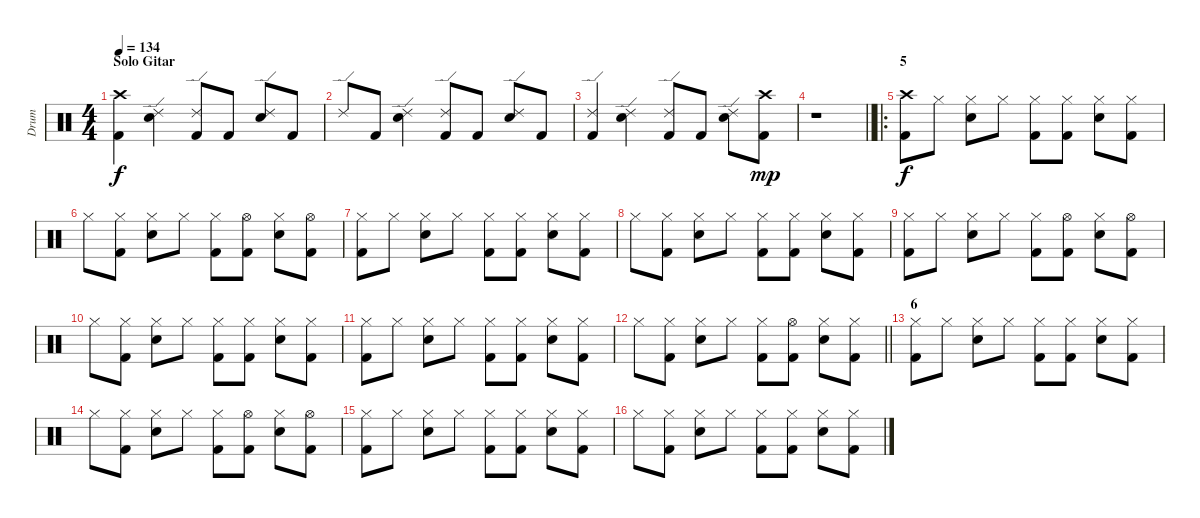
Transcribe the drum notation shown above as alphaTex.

\track ("Drum" "Drum") {instrument percussion}
\staff {score}
\articulation defaults
\ts (4 4)
\section ("" "Solo Gitar")
\tempo 134
\clef neutral
\ks c
("Kick (hit) 2" "Crash high (hit)").4{dy f} ("Electric Snare (hit)" "Ride (edge) 2").4 ("Ride (edge) 2" "Kick (hit) 2").8 "Kick (hit) 2".8 ("Electric Snare (hit)" "Ride (edge) 2").8 "Kick (hit) 2".8 |
"Ride (edge) 2".8 "Kick (hit) 2".8 ("Electric Snare (hit)" "Ride (edge) 2").4 ("Kick (hit) 2" "Ride (edge) 2").8 "Kick (hit) 2".8 ("Ride (edge) 2" "Electric Snare (hit)").8 "Kick (hit) 2".8 |
("Kick (hit) 2" "Ride (edge) 2").4 ("Electric Snare (hit)" "Ride (edge) 2").4 ("Ride (edge) 2" "Kick (hit) 2").8 "Kick (hit) 2".8 ("Electric Snare (hit)" "Ride (edge) 2").8 ("Crash high (hit)" "Kick (hit) 2").8{dy mp} |
\barLineRight lightlight
r.1 |
\ro
\section ("" "5")
("Kick (hit) 2" "Crash high (hit)").8{dy f} "Hi-Hat (closed)".8 ("Hi-Hat (closed)" "Electric Snare (hit)").8 "Hi-Hat (closed)".8 ("Hi-Hat (closed)" "Kick (hit) 2").8 ("Hi-Hat (closed)" "Kick (hit) 2").8 ("Electric Snare (hit)" "Hi-Hat (closed)").8 ("Hi-Hat (closed)" "Kick (hit) 2").8 |
"Hi-Hat (closed)".8 ("Hi-Hat (closed)" "Kick (hit) 2").8 ("Electric Snare (hit)" "Hi-Hat (closed)").8 "Hi-Hat (closed)".8 ("Kick (hit) 2" "Hi-Hat (closed)").8 ("Hi-Hat (open)" "Kick (hit) 2").8 ("Hi-Hat (closed)" "Electric Snare (hit)").8 ("Kick (hit) 2" "Hi-Hat (open)").8 |
("Kick (hit) 2" "Hi-Hat (closed)").8 "Hi-Hat (closed)".8 ("Hi-Hat (closed)" "Electric Snare (hit)").8 "Hi-Hat (closed)".8 ("Hi-Hat (closed)" "Kick (hit) 2").8 ("Hi-Hat (closed)" "Kick (hit) 2").8 ("Electric Snare (hit)" "Hi-Hat (closed)").8 ("Hi-Hat (closed)" "Kick (hit) 2").8 |
"Hi-Hat (closed)".8 ("Hi-Hat (closed)" "Kick (hit) 2").8 ("Electric Snare (hit)" "Hi-Hat (closed)").8 "Hi-Hat (closed)".8 ("Kick (hit) 2" "Hi-Hat (closed)").8 ("Hi-Hat (closed)" "Kick (hit) 2").8 ("Hi-Hat (closed)" "Electric Snare (hit)").8 ("Kick (hit) 2" "Hi-Hat (closed)").8 |
("Kick (hit) 2" "Hi-Hat (closed)").8 "Hi-Hat (closed)".8 ("Hi-Hat (closed)" "Electric Snare (hit)").8 "Hi-Hat (closed)".8 ("Hi-Hat (closed)" "Kick (hit) 2").8 ("Hi-Hat (open)" "Kick (hit) 2").8 ("Electric Snare (hit)" "Hi-Hat (closed)").8 ("Hi-Hat (open)" "Kick (hit) 2").8 |
"Hi-Hat (closed)".8 ("Hi-Hat (closed)" "Kick (hit) 2").8 ("Electric Snare (hit)" "Hi-Hat (closed)").8 "Hi-Hat (closed)".8 ("Kick (hit) 2" "Hi-Hat (closed)").8 ("Hi-Hat (closed)" "Kick (hit) 2").8 ("Hi-Hat (closed)" "Electric Snare (hit)").8 ("Kick (hit) 2" "Hi-Hat (closed)").8 |
("Kick (hit) 2" "Hi-Hat (closed)").8 "Hi-Hat (closed)".8 ("Hi-Hat (closed)" "Electric Snare (hit)").8 "Hi-Hat (closed)".8 ("Hi-Hat (closed)" "Kick (hit) 2").8 ("Hi-Hat (closed)" "Kick (hit) 2").8 ("Electric Snare (hit)" "Hi-Hat (closed)").8 ("Hi-Hat (closed)" "Kick (hit) 2").8 |
\barLineRight lightlight "Hi-Hat (closed)".8
("Hi-Hat (closed)" "Kick (hit) 2").8 ("Electric Snare (hit)" "Hi-Hat (closed)").8 "Hi-Hat (closed)".8 ("Kick (hit) 2" "Hi-Hat (closed)").8 ("Hi-Hat (open)" "Kick (hit) 2").8 ("Hi-Hat (closed)" "Electric Snare (hit)").8 ("Kick (hit) 2" "Hi-Hat (closed)").8 |
\section ("" "6")
("Kick (hit) 2" "Hi-Hat (closed)").8 "Hi-Hat (closed)".8 ("Hi-Hat (closed)" "Electric Snare (hit)").8 "Hi-Hat (closed)".8 ("Hi-Hat (closed)" "Kick (hit) 2").8 ("Hi-Hat (closed)" "Kick (hit) 2").8 ("Electric Snare (hit)" "Hi-Hat (closed)").8 ("Hi-Hat (closed)" "Kick (hit) 2").8 |
"Hi-Hat (closed)".8 ("Hi-Hat (closed)" "Kick (hit) 2").8 ("Electric Snare (hit)" "Hi-Hat (closed)").8 "Hi-Hat (closed)".8 ("Kick (hit) 2" "Hi-Hat (closed)").8 ("Hi-Hat (open)" "Kick (hit) 2").8 ("Hi-Hat (closed)" "Electric Snare (hit)").8 ("Kick (hit) 2" "Hi-Hat (open)").8 |
("Kick (hit) 2" "Hi-Hat (closed)").8 "Hi-Hat (closed)".8 ("Hi-Hat (closed)" "Electric Snare (hit)").8 "Hi-Hat (closed)".8 ("Hi-Hat (closed)" "Kick (hit) 2").8 ("Hi-Hat (closed)" "Kick (hit) 2").8 ("Electric Snare (hit)" "Hi-Hat (closed)").8 ("Hi-Hat (closed)" "Kick (hit) 2").8 |
"Hi-Hat (closed)".8 ("Hi-Hat (closed)" "Kick (hit) 2").8 ("Electric Snare (hit)" "Hi-Hat (closed)").8 "Hi-Hat (closed)".8 ("Kick (hit) 2" "Hi-Hat (closed)").8 ("Hi-Hat (closed)" "Kick (hit) 2").8 ("Hi-Hat (closed)" "Electric Snare (hit)").8 ("Kick (hit) 2" "Hi-Hat (closed)").8
